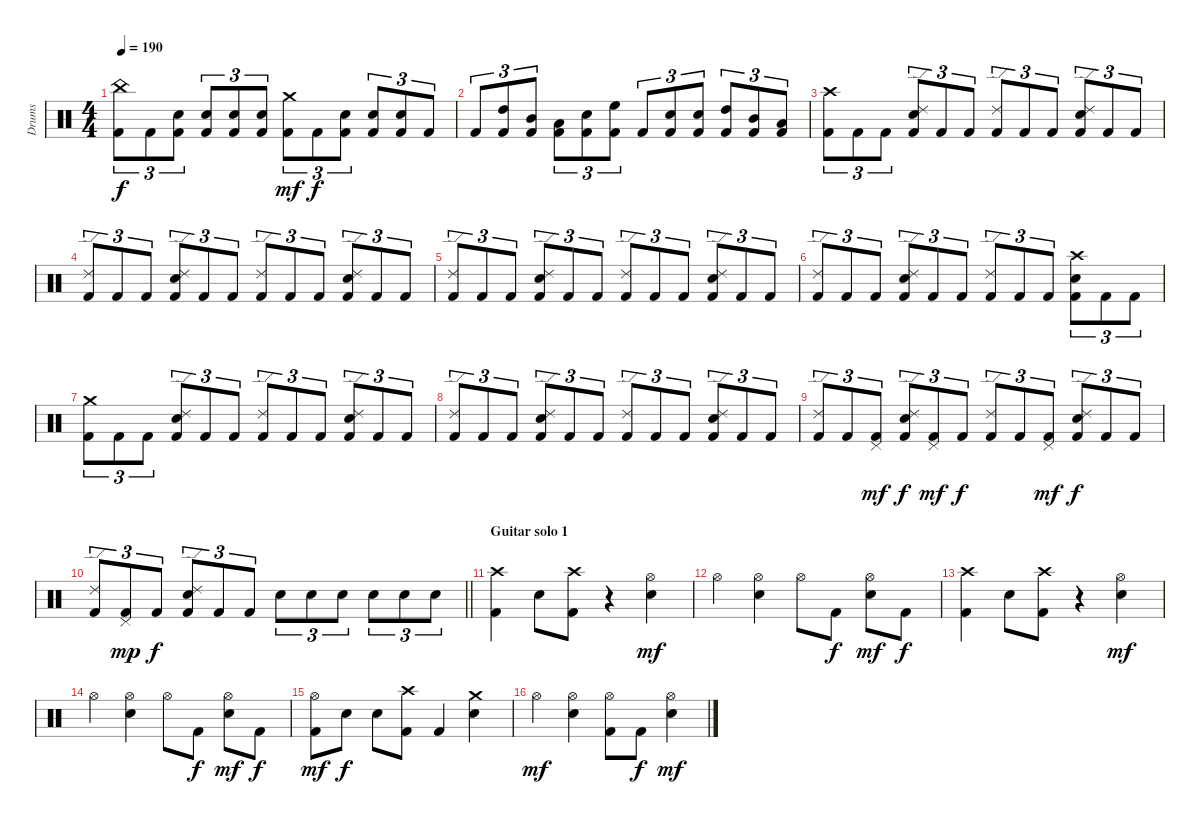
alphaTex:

\track ("Drums" "Drums") {instrument percussion}
\staff {score}
\articulation defaults
\ts (4 4)
\tempo 190
\clef neutral
\ks c
("China (hit)" "Kick (hit) 2").8{tu (3 2) dy f} "Kick (hit) 2".8{tu (3 2)} ("Electric Snare (hit)" "Kick (hit) 2").8{tu (3 2)} ("Electric Snare (hit)" "Kick (hit) 2").8{tu (3 2)} ("Electric Snare (hit)" "Kick (hit) 2").8{tu (3 2)} ("Electric Snare (hit)" "Kick (hit) 2").8{tu (3 2)} ("Crash medium (hit)" "Kick (hit) 2").8{tu (3 2) dy mf} "Kick (hit) 2".8{tu (3 2) dy f} ("Electric Snare (hit)" "Kick (hit) 2").8{tu (3 2)} ("Electric Snare (hit)" "Kick (hit) 2").8{tu (3 2)} ("Electric Snare (hit)" "Kick (hit) 2").8{tu (3 2)} "Kick (hit) 2".8{tu (3 2)} |
"Kick (hit) 2".8{tu (3 2)} ("High Tom (hit)" "Kick (hit) 2").8{tu (3 2)} ("Mid Tom (hit)" "Kick (hit) 2").8{tu (3 2)} ("Low Tom (hit)" "Kick (hit) 2").8{tu (3 2)} ("Electric Snare (hit)" "Kick (hit) 2").8{tu (3 2)} ("High Floor Tom (hit)" "Kick (hit) 2").8{tu (3 2)} "Kick (hit) 2".8{tu (3 2)} ("Electric Snare (hit)" "Kick (hit) 2").8{tu (3 2)} ("Electric Snare (hit)" "Kick (hit) 2").8{tu (3 2)} ("High Tom (hit)" "Kick (hit) 2").8{tu (3 2)} ("Mid Tom (hit)" "Kick (hit) 2").8{tu (3 2)} ("Low Tom (hit)" "Kick (hit) 2").8{tu (3 2)} |
("Crash high (hit)" "Kick (hit) 2").8{tu (3 2)} "Kick (hit) 2".8{tu (3 2)} "Kick (hit) 2".8{tu (3 2)} ("Ride (edge) 2" "Electric Snare (hit)" "Kick (hit) 2").8{tu (3 2)} "Kick (hit) 2".8{tu (3 2)} "Kick (hit) 2".8{tu (3 2)} ("Ride (edge) 2" "Kick (hit) 2").8{tu (3 2)} "Kick (hit) 2".8{tu (3 2)} "Kick (hit) 2".8{tu (3 2)} ("Ride (edge) 2" "Electric Snare (hit)" "Kick (hit) 2").8{tu (3 2)} "Kick (hit) 2".8{tu (3 2)} "Kick (hit) 2".8{tu (3 2)} |
("Ride (edge) 2" "Kick (hit) 2").8{tu (3 2)} "Kick (hit) 2".8{tu (3 2)} "Kick (hit) 2".8{tu (3 2)} ("Ride (edge) 2" "Electric Snare (hit)" "Kick (hit) 2").8{tu (3 2)} "Kick (hit) 2".8{tu (3 2)} "Kick (hit) 2".8{tu (3 2)} ("Ride (edge) 2" "Kick (hit) 2").8{tu (3 2)} "Kick (hit) 2".8{tu (3 2)} "Kick (hit) 2".8{tu (3 2)} ("Ride (edge) 2" "Electric Snare (hit)" "Kick (hit) 2").8{tu (3 2)} "Kick (hit) 2".8{tu (3 2)} "Kick (hit) 2".8{tu (3 2)} |
("Ride (edge) 2" "Kick (hit) 2").8{tu (3 2)} "Kick (hit) 2".8{tu (3 2)} "Kick (hit) 2".8{tu (3 2)} ("Ride (edge) 2" "Electric Snare (hit)" "Kick (hit) 2").8{tu (3 2)} "Kick (hit) 2".8{tu (3 2)} "Kick (hit) 2".8{tu (3 2)} ("Ride (edge) 2" "Kick (hit) 2").8{tu (3 2)} "Kick (hit) 2".8{tu (3 2)} "Kick (hit) 2".8{tu (3 2)} ("Ride (edge) 2" "Electric Snare (hit)" "Kick (hit) 2").8{tu (3 2)} "Kick (hit) 2".8{tu (3 2)} "Kick (hit) 2".8{tu (3 2)} |
("Ride (edge) 2" "Kick (hit) 2").8{tu (3 2)} "Kick (hit) 2".8{tu (3 2)} "Kick (hit) 2".8{tu (3 2)} ("Ride (edge) 2" "Electric Snare (hit)" "Kick (hit) 2").8{tu (3 2)} "Kick (hit) 2".8{tu (3 2)} "Kick (hit) 2".8{tu (3 2)} ("Ride (edge) 2" "Kick (hit) 2").8{tu (3 2)} "Kick (hit) 2".8{tu (3 2)} "Kick (hit) 2".8{tu (3 2)} ("Crash high (hit)" "Electric Snare (hit)" "Kick (hit) 2").8{tu (3 2)} "Kick (hit) 2".8{tu (3 2)} "Kick (hit) 2".8{tu (3 2)} |
("Crash medium (hit)" "Kick (hit) 2").8{tu (3 2)} "Kick (hit) 2".8{tu (3 2)} "Kick (hit) 2".8{tu (3 2)} ("Ride (edge) 2" "Electric Snare (hit)" "Kick (hit) 2").8{tu (3 2)} "Kick (hit) 2".8{tu (3 2)} "Kick (hit) 2".8{tu (3 2)} ("Ride (edge) 2" "Kick (hit) 2").8{tu (3 2)} "Kick (hit) 2".8{tu (3 2)} "Kick (hit) 2".8{tu (3 2)} ("Ride (edge) 2" "Electric Snare (hit)" "Kick (hit) 2").8{tu (3 2)} "Kick (hit) 2".8{tu (3 2)} "Kick (hit) 2".8{tu (3 2)} |
("Ride (edge) 2" "Kick (hit) 2").8{tu (3 2)} "Kick (hit) 2".8{tu (3 2)} "Kick (hit) 2".8{tu (3 2)} ("Ride (edge) 2" "Electric Snare (hit)" "Kick (hit) 2").8{tu (3 2)} "Kick (hit) 2".8{tu (3 2)} "Kick (hit) 2".8{tu (3 2)} ("Ride (edge) 2" "Kick (hit) 2").8{tu (3 2)} "Kick (hit) 2".8{tu (3 2)} "Kick (hit) 2".8{tu (3 2)} ("Ride (edge) 2" "Electric Snare (hit)" "Kick (hit) 2").8{tu (3 2)} "Kick (hit) 2".8{tu (3 2)} "Kick (hit) 2".8{tu (3 2)} |
("Ride (edge) 2" "Kick (hit) 2").8{tu (3 2)} "Kick (hit) 2".8{tu (3 2)} ("Pedal Hi-Hat (hit)" "Kick (hit) 2").8{tu (3 2) dy mf} ("Ride (edge) 2" "Electric Snare (hit)" "Kick (hit) 2").8{tu (3 2) dy f} ("Pedal Hi-Hat (hit)" "Kick (hit) 2").8{tu (3 2) dy mf} "Kick (hit) 2".8{tu (3 2) dy f} ("Ride (edge) 2" "Kick (hit) 2").8{tu (3 2)} "Kick (hit) 2".8{tu (3 2)} ("Pedal Hi-Hat (hit)" "Kick (hit) 2").8{tu (3 2) dy mf} ("Ride (edge) 2" "Electric Snare (hit)" "Kick (hit) 2").8{tu (3 2) dy f} "Kick (hit) 2".8{tu (3 2)} "Kick (hit) 2".8{tu (3 2)} |
\barLineRight lightlight
("Ride (edge) 2" "Kick (hit) 2").8{tu (3 2)} ("Pedal Hi-Hat (hit)" "Kick (hit) 2").8{tu (3 2) dy mp} "Kick (hit) 2".8{tu (3 2) dy f} ("Ride (edge) 2" "Electric Snare (hit)" "Kick (hit) 2").8{tu (3 2)} "Kick (hit) 2".8{tu (3 2)} "Kick (hit) 2".8{tu (3 2)} "Electric Snare (hit)".8{tu (3 2)} "Electric Snare (hit)".8{tu (3 2)} "Electric Snare (hit)".8{tu (3 2)} "Electric Snare (hit)".8{tu (3 2)} "Electric Snare (hit)".8{tu (3 2)} "Electric Snare (hit)".8{tu (3 2)} |
\section ("" "Guitar solo 1")
("Crash high (hit)" "Kick (hit) 2").4 "Electric Snare (hit)".8 ("Crash high (hit)" "Kick (hit) 2").8 r.4 ("Hi-Hat (open)" "Electric Snare (hit)").4{dy mf} |
"Hi-Hat (open)".4 ("Hi-Hat (open)" "Electric Snare (hit)").4 "Hi-Hat (open)".8 "Kick (hit) 2".8{dy f} ("Hi-Hat (open)" "Electric Snare (hit)").8{dy mf} "Kick (hit) 2".8{dy f} |
("Crash high (hit)" "Kick (hit) 2").4 "Electric Snare (hit)".8 ("Crash high (hit)" "Kick (hit) 2").8 r.4 ("Hi-Hat (open)" "Electric Snare (hit)").4{dy mf} |
"Hi-Hat (open)".4 ("Hi-Hat (open)" "Electric Snare (hit)").4 "Hi-Hat (open)".8 "Kick (hit) 2".8{dy f} ("Hi-Hat (open)" "Electric Snare (hit)").8{dy mf} "Kick (hit) 2".8{dy f} |
("Hi-Hat (open)" "Kick (hit) 2").8{dy mf} "Electric Snare (hit)".8{dy f} "Electric Snare (hit)".8 ("Crash high (hit)" "Kick (hit) 2").8 "Kick (hit) 2".4 ("Crash medium (hit)" "Electric Snare (hit)").4 |
"Hi-Hat (open)".4{dy mf} ("Hi-Hat (open)" "Electric Snare (hit)").4 ("Hi-Hat (open)" "Kick (hit) 2").8 "Kick (hit) 2".8{dy f} ("Hi-Hat (open)" "Electric Snare (hit)").4{dy mf}
